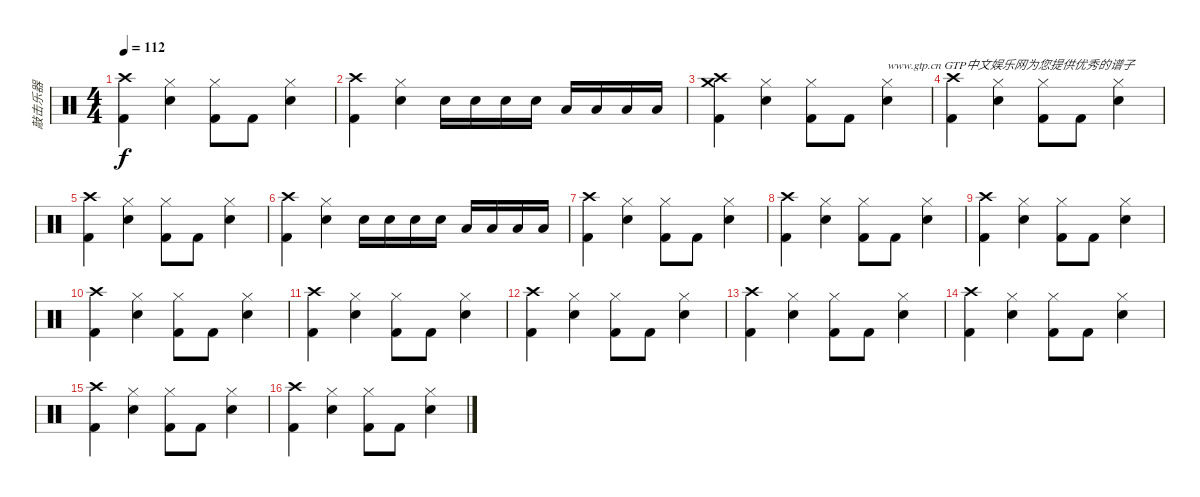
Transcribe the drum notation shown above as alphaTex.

\track ("敲击乐器" "敲击乐器") {instrument percussion}
\staff {score}
\articulation defaults
\ts (4 4)
\tempo 112
\clef neutral
\ks c
("Crash high (hit)" "Kick (hit) 2").4{dy f} ("Hi-Hat (closed)" "Snare (hit) 2").4 ("Hi-Hat (closed)" "Kick (hit) 2").8 "Kick (hit) 2".8 ("Hi-Hat (closed)" "Snare (hit) 2").4 |
("Crash high (hit)" "Kick (hit) 2").4 ("Hi-Hat (closed)" "Snare (hit) 2").4 "Snare (hit) 2".16 "Snare (hit) 2".16 "Snare (hit) 2".16 "Snare (hit) 2".16 "Low Floor Tom (hit)".16 "Low Floor Tom (hit)".16 "Low Tom (hit)".16 "Low Tom (hit)".16 |
("Crash medium (hit)" "Crash high (hit)" "Kick (hit) 2").4 ("Hi-Hat (closed)" "Snare (hit) 2").4 ("Hi-Hat (closed)" "Kick (hit) 2").8 "Kick (hit) 2".8 ("Hi-Hat (closed)" "Snare (hit) 2").4{txt "www.gtp.cn GTP中文娱乐网为您提供优秀的谱子"} |
("Crash high (hit)" "Kick (hit) 2").4 ("Hi-Hat (closed)" "Snare (hit) 2").4 ("Hi-Hat (closed)" "Kick (hit) 2").8 "Kick (hit) 2".8 ("Hi-Hat (closed)" "Snare (hit) 2").4 |
("Crash high (hit)" "Kick (hit) 2").4 ("Hi-Hat (closed)" "Snare (hit) 2").4 ("Hi-Hat (closed)" "Kick (hit) 2").8 "Kick (hit) 2".8 ("Hi-Hat (closed)" "Snare (hit) 2").4 |
("Crash high (hit)" "Kick (hit) 2").4 ("Hi-Hat (closed)" "Snare (hit) 2").4 "Snare (hit) 2".16 "Snare (hit) 2".16 "Snare (hit) 2".16 "Snare (hit) 2".16 "Low Floor Tom (hit)".16 "Low Floor Tom (hit)".16 "Low Tom (hit)".16 "Low Tom (hit)".16 |
("Crash high (hit)" "Kick (hit) 2").4 ("Hi-Hat (closed)" "Snare (hit) 2").4 ("Hi-Hat (closed)" "Kick (hit) 2").8 "Kick (hit) 2".8 ("Hi-Hat (closed)" "Snare (hit) 2").4 |
("Crash high (hit)" "Kick (hit) 2").4 ("Hi-Hat (closed)" "Snare (hit) 2").4 ("Hi-Hat (closed)" "Kick (hit) 2").8 "Kick (hit) 2".8 ("Hi-Hat (closed)" "Snare (hit) 2").4 |
("Crash high (hit)" "Kick (hit) 2").4 ("Hi-Hat (closed)" "Snare (hit) 2").4 ("Hi-Hat (closed)" "Kick (hit) 2").8 "Kick (hit) 2".8 ("Hi-Hat (closed)" "Snare (hit) 2").4 |
("Crash high (hit)" "Kick (hit) 2").4 ("Hi-Hat (closed)" "Snare (hit) 2").4 ("Hi-Hat (closed)" "Kick (hit) 2").8 "Kick (hit) 2".8 ("Hi-Hat (closed)" "Snare (hit) 2").4 |
("Crash high (hit)" "Kick (hit) 2").4 ("Hi-Hat (closed)" "Snare (hit) 2").4 ("Hi-Hat (closed)" "Kick (hit) 2").8 "Kick (hit) 2".8 ("Hi-Hat (closed)" "Snare (hit) 2").4 |
("Crash high (hit)" "Kick (hit) 2").4 ("Hi-Hat (closed)" "Snare (hit) 2").4 ("Hi-Hat (closed)" "Kick (hit) 2").8 "Kick (hit) 2".8 ("Hi-Hat (closed)" "Snare (hit) 2").4 |
("Crash high (hit)" "Kick (hit) 2").4 ("Hi-Hat (closed)" "Snare (hit) 2").4 ("Hi-Hat (closed)" "Kick (hit) 2").8 "Kick (hit) 2".8 ("Hi-Hat (closed)" "Snare (hit) 2").4 |
("Crash high (hit)" "Kick (hit) 2").4 ("Hi-Hat (closed)" "Snare (hit) 2").4 ("Hi-Hat (closed)" "Kick (hit) 2").8 "Kick (hit) 2".8 ("Hi-Hat (closed)" "Snare (hit) 2").4 |
("Crash high (hit)" "Kick (hit) 2").4 ("Hi-Hat (closed)" "Snare (hit) 2").4 ("Hi-Hat (closed)" "Kick (hit) 2").8 "Kick (hit) 2".8 ("Hi-Hat (closed)" "Snare (hit) 2").4 |
("Crash high (hit)" "Kick (hit) 2").4 ("Hi-Hat (closed)" "Snare (hit) 2").4 ("Hi-Hat (closed)" "Kick (hit) 2").8 "Kick (hit) 2".8 ("Hi-Hat (closed)" "Snare (hit) 2").4
